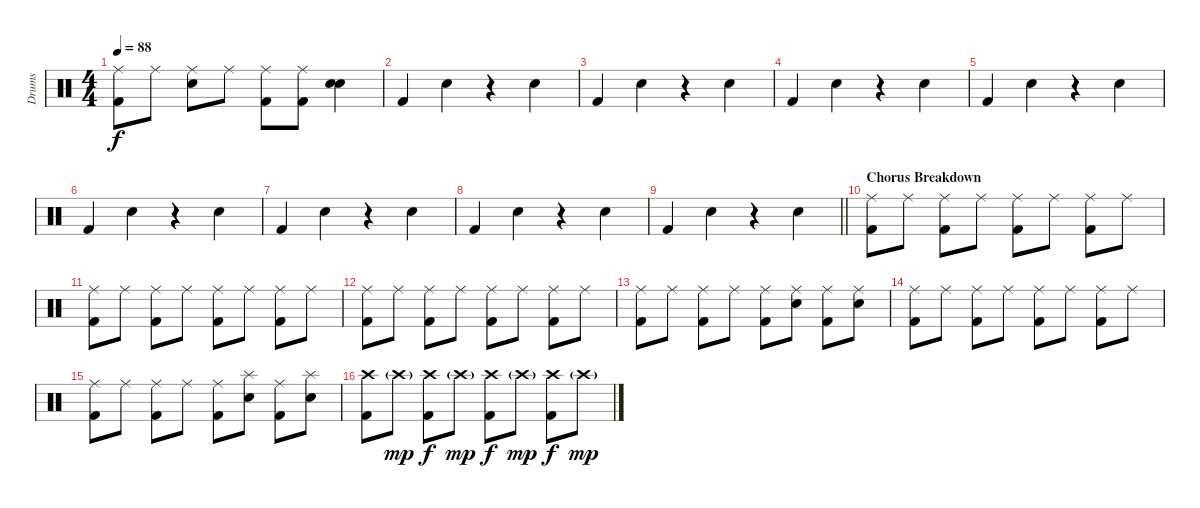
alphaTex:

\track ("Drums" "Drums") {instrument percussion}
\staff {score}
\articulation defaults
\ts (4 4)
\tempo 88
\clef neutral
\ks c
("Kick (hit) 2" "Ride (middle)").8{dy f} "Ride (middle)".8 ("Electric Snare (hit)" "Ride (middle)").8 "Ride (middle)".8 ("Kick (hit) 2" "Ride (middle)").8 ("Kick (hit) 2" "Ride (middle)").8 ("Electric Snare (hit)" "Electric Snare (hit)").4 |
"Kick (hit) 2".4 "Electric Snare (hit)".4 r.4 "Electric Snare (hit)".4 |
"Kick (hit) 2".4 "Electric Snare (hit)".4 r.4 "Electric Snare (hit)".4 |
"Kick (hit) 2".4 "Electric Snare (hit)".4 r.4 "Electric Snare (hit)".4 |
"Kick (hit) 2".4 "Electric Snare (hit)".4 r.4 "Electric Snare (hit)".4 |
"Kick (hit) 2".4 "Electric Snare (hit)".4 r.4 "Electric Snare (hit)".4 |
"Kick (hit) 2".4 "Electric Snare (hit)".4 r.4 "Electric Snare (hit)".4 |
"Kick (hit) 2".4 "Electric Snare (hit)".4 r.4 "Electric Snare (hit)".4 |
\barLineRight lightlight "Kick (hit) 2".4 "Electric Snare (hit)".4
r.4 "Electric Snare (hit)".4 |
\section ("" "Chorus Breakdown")
("Kick (hit) 2" "Ride (middle)").8 "Ride (middle)".8 ("Kick (hit) 2" "Ride (middle)").8 "Ride (middle)".8 ("Kick (hit) 2" "Ride (middle)").8 "Ride (middle)".8 ("Kick (hit) 2" "Ride (middle)").8 "Ride (middle)".8 |
("Kick (hit) 2" "Ride (middle)").8 "Ride (middle)".8 ("Kick (hit) 2" "Ride (middle)").8 "Ride (middle)".8 ("Kick (hit) 2" "Ride (middle)").8 "Ride (middle)".8 ("Kick (hit) 2" "Ride (middle)").8 "Ride (middle)".8 |
("Kick (hit) 2" "Ride (middle)").8 "Ride (middle)".8 ("Kick (hit) 2" "Ride (middle)").8 "Ride (middle)".8 ("Kick (hit) 2" "Ride (middle)").8 "Ride (middle)".8 ("Kick (hit) 2" "Ride (middle)").8 "Ride (middle)".8 |
("Kick (hit) 2" "Ride (middle)").8 "Ride (middle)".8 ("Kick (hit) 2" "Ride (middle)").8 "Ride (middle)".8 ("Kick (hit) 2" "Ride (middle)").8 ("Electric Snare (hit)" "Ride (middle)").8 ("Kick (hit) 2" "Ride (middle)").8 ("Electric Snare (hit)" "Ride (middle)").8 |
("Kick (hit) 2" "Ride (middle)").8 "Ride (middle)".8 ("Kick (hit) 2" "Ride (middle)").8 "Ride (middle)".8 ("Kick (hit) 2" "Ride (middle)").8 "Ride (middle)".8 ("Kick (hit) 2" "Ride (middle)").8 "Ride (middle)".8 |
("Kick (hit) 2" "Ride (middle)").8 "Ride (middle)".8 ("Kick (hit) 2" "Ride (middle)").8 "Ride (middle)".8 ("Kick (hit) 2" "Ride (middle)").8 ("Electric Snare (hit)" "Splash (hit)").8 ("Kick (hit) 2" "Ride (middle)").8 ("Electric Snare (hit)" "Splash (hit)").8 |
("Kick (hit) 2" "Crash high (hit)").8 "Crash high (hit)"{g}.8{dy mp} ("Kick (hit) 2" "Crash high (hit)").8{dy f} "Crash high (hit)"{g}.8{dy mp} ("Kick (hit) 2" "Crash high (hit)").8{dy f} "Crash high (hit)"{g}.8{dy mp} ("Kick (hit) 2" "Crash high (hit)").8{dy f} "Crash high (hit)"{g}.8{dy mp}
